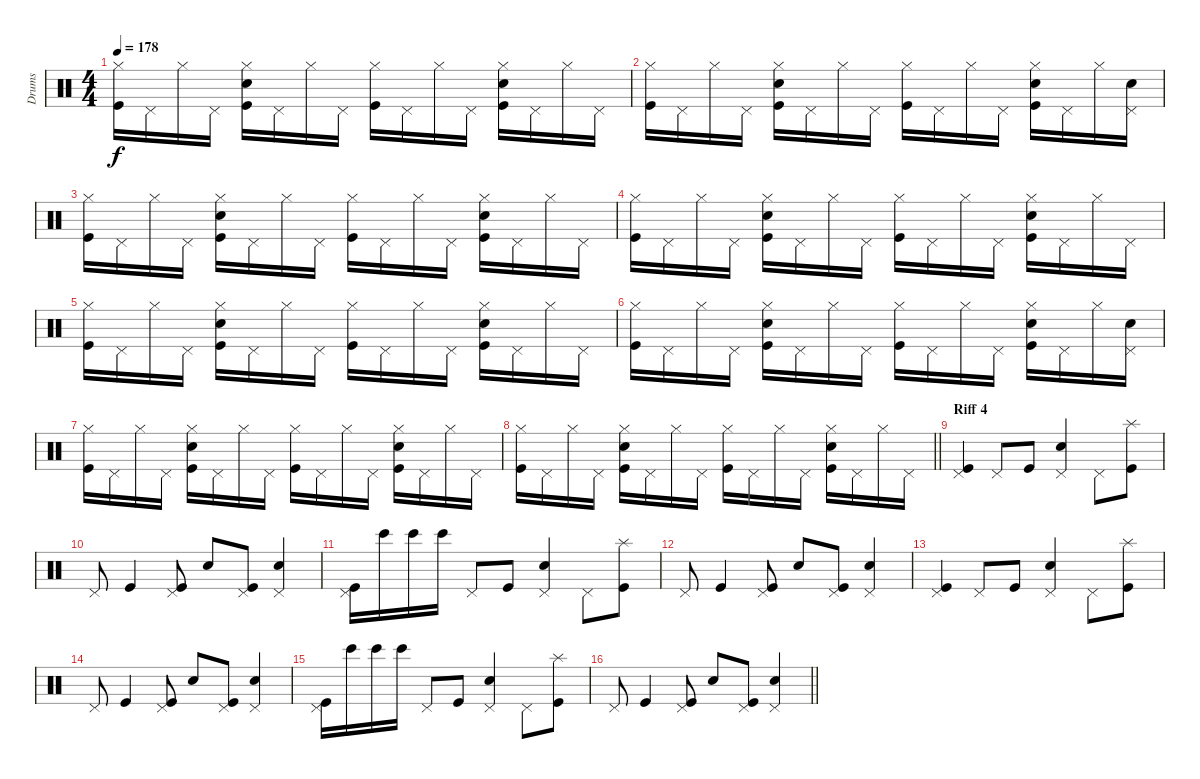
\track ("Drums" "Drums") {instrument percussion}
\staff {score}
\articulation defaults
\ts (4 4)
\tempo 178
\clef neutral
\ks c
("Kick (hit)" "Hi-Hat (closed)").16{dy f} "Pedal Hi-Hat (hit)".16 "Hi-Hat (closed)".16 "Pedal Hi-Hat (hit)".16 ("Kick (hit)" "Electric Snare (hit)" "Hi-Hat (closed)").16 "Pedal Hi-Hat (hit)".16 "Hi-Hat (closed)".16 "Pedal Hi-Hat (hit)".16 ("Kick (hit)" "Hi-Hat (closed)").16 "Pedal Hi-Hat (hit)".16 "Hi-Hat (closed)".16 "Pedal Hi-Hat (hit)".16 ("Kick (hit)" "Electric Snare (hit)" "Hi-Hat (closed)").16 "Pedal Hi-Hat (hit)".16 "Hi-Hat (closed)".16 "Pedal Hi-Hat (hit)".16 |
("Kick (hit)" "Hi-Hat (closed)").16 "Pedal Hi-Hat (hit)".16 "Hi-Hat (closed)".16 "Pedal Hi-Hat (hit)".16 ("Kick (hit)" "Electric Snare (hit)" "Hi-Hat (closed)").16 "Pedal Hi-Hat (hit)".16 "Hi-Hat (closed)".16 "Pedal Hi-Hat (hit)".16 ("Kick (hit)" "Hi-Hat (closed)").16 "Pedal Hi-Hat (hit)".16 "Hi-Hat (closed)".16 "Pedal Hi-Hat (hit)".16 ("Kick (hit)" "Electric Snare (hit)" "Hi-Hat (closed)").16 "Pedal Hi-Hat (hit)".16 "Hi-Hat (closed)".16 ("Electric Snare (hit)" "Pedal Hi-Hat (hit)").16 |
("Kick (hit)" "Hi-Hat (closed)").16 "Pedal Hi-Hat (hit)".16 "Hi-Hat (closed)".16 "Pedal Hi-Hat (hit)".16 ("Kick (hit)" "Electric Snare (hit)" "Hi-Hat (closed)").16 "Pedal Hi-Hat (hit)".16 "Hi-Hat (closed)".16 "Pedal Hi-Hat (hit)".16 ("Kick (hit)" "Hi-Hat (closed)").16 "Pedal Hi-Hat (hit)".16 "Hi-Hat (closed)".16 "Pedal Hi-Hat (hit)".16 ("Kick (hit)" "Electric Snare (hit)" "Hi-Hat (closed)").16 "Pedal Hi-Hat (hit)".16 "Hi-Hat (closed)".16 "Pedal Hi-Hat (hit)".16 |
("Kick (hit)" "Hi-Hat (closed)").16 "Pedal Hi-Hat (hit)".16 "Hi-Hat (closed)".16 "Pedal Hi-Hat (hit)".16 ("Kick (hit)" "Electric Snare (hit)" "Hi-Hat (closed)").16 "Pedal Hi-Hat (hit)".16 "Hi-Hat (closed)".16 "Pedal Hi-Hat (hit)".16 ("Kick (hit)" "Hi-Hat (closed)").16 "Pedal Hi-Hat (hit)".16 "Hi-Hat (closed)".16 "Pedal Hi-Hat (hit)".16 ("Kick (hit)" "Electric Snare (hit)" "Hi-Hat (closed)").16 "Pedal Hi-Hat (hit)".16 "Hi-Hat (closed)".16 "Pedal Hi-Hat (hit)".16 |
("Kick (hit)" "Hi-Hat (closed)").16 "Pedal Hi-Hat (hit)".16 "Hi-Hat (closed)".16 "Pedal Hi-Hat (hit)".16 ("Kick (hit)" "Electric Snare (hit)" "Hi-Hat (closed)").16 "Pedal Hi-Hat (hit)".16 "Hi-Hat (closed)".16 "Pedal Hi-Hat (hit)".16 ("Kick (hit)" "Hi-Hat (closed)").16 "Pedal Hi-Hat (hit)".16 "Hi-Hat (closed)".16 "Pedal Hi-Hat (hit)".16 ("Kick (hit)" "Electric Snare (hit)" "Hi-Hat (closed)").16 "Pedal Hi-Hat (hit)".16 "Hi-Hat (closed)".16 "Pedal Hi-Hat (hit)".16 |
("Kick (hit)" "Hi-Hat (closed)").16 "Pedal Hi-Hat (hit)".16 "Hi-Hat (closed)".16 "Pedal Hi-Hat (hit)".16 ("Kick (hit)" "Electric Snare (hit)" "Hi-Hat (closed)").16 "Pedal Hi-Hat (hit)".16 "Hi-Hat (closed)".16 "Pedal Hi-Hat (hit)".16 ("Kick (hit)" "Hi-Hat (closed)").16 "Pedal Hi-Hat (hit)".16 "Hi-Hat (closed)".16 "Pedal Hi-Hat (hit)".16 ("Kick (hit)" "Electric Snare (hit)" "Hi-Hat (closed)").16 "Pedal Hi-Hat (hit)".16 "Hi-Hat (closed)".16 ("Electric Snare (hit)" "Pedal Hi-Hat (hit)").16 |
("Kick (hit)" "Hi-Hat (closed)").16 "Pedal Hi-Hat (hit)".16 "Hi-Hat (closed)".16 "Pedal Hi-Hat (hit)".16 ("Kick (hit)" "Electric Snare (hit)" "Hi-Hat (closed)").16 "Pedal Hi-Hat (hit)".16 "Hi-Hat (closed)".16 "Pedal Hi-Hat (hit)".16 ("Kick (hit)" "Hi-Hat (closed)").16 "Pedal Hi-Hat (hit)".16 "Hi-Hat (closed)".16 "Pedal Hi-Hat (hit)".16 ("Kick (hit)" "Electric Snare (hit)" "Hi-Hat (closed)").16 "Pedal Hi-Hat (hit)".16 "Hi-Hat (closed)".16 "Pedal Hi-Hat (hit)".16 |
\barLineRight lightlight
("Kick (hit)" "Hi-Hat (closed)").16 "Pedal Hi-Hat (hit)".16 "Hi-Hat (closed)".16 "Pedal Hi-Hat (hit)".16 ("Kick (hit)" "Electric Snare (hit)" "Hi-Hat (closed)").16 "Pedal Hi-Hat (hit)".16 "Hi-Hat (closed)".16 "Pedal Hi-Hat (hit)".16 ("Kick (hit)" "Hi-Hat (closed)").16 "Pedal Hi-Hat (hit)".16 "Hi-Hat (closed)".16 "Pedal Hi-Hat (hit)".16 ("Kick (hit)" "Electric Snare (hit)" "Hi-Hat (closed)").16 "Pedal Hi-Hat (hit)".16 "Hi-Hat (closed)".16 "Pedal Hi-Hat (hit)".16 |
\section ("" "Riff 4")
("Kick (hit)" "Pedal Hi-Hat (hit)").4 "Pedal Hi-Hat (hit)".8 "Kick (hit)".8 ("Electric Snare (hit)" "Pedal Hi-Hat (hit)").4 "Pedal Hi-Hat (hit)".8 ("Kick (hit)" "Splash (hit)").8 |
"Pedal Hi-Hat (hit)".8 "Kick (hit)".4 ("Kick (hit)" "Pedal Hi-Hat (hit)").8 "Electric Snare (hit)".8 ("Kick (hit)" "Pedal Hi-Hat (hit)").8 ("Electric Snare (hit)" "Pedal Hi-Hat (hit)").4 |
("Kick (hit)" "Pedal Hi-Hat (hit)").16 "Bongo High (hit)".16 "Bongo High (hit)".16 "Bongo High (hit)".16 "Pedal Hi-Hat (hit)".8 "Kick (hit)".8 ("Electric Snare (hit)" "Pedal Hi-Hat (hit)").4 "Pedal Hi-Hat (hit)".8 ("Kick (hit)" "Splash (hit)").8 |
"Pedal Hi-Hat (hit)".8 "Kick (hit)".4 ("Kick (hit)" "Pedal Hi-Hat (hit)").8 "Electric Snare (hit)".8 ("Kick (hit)" "Pedal Hi-Hat (hit)").8 ("Electric Snare (hit)" "Pedal Hi-Hat (hit)").4 |
("Kick (hit)" "Pedal Hi-Hat (hit)").4 "Pedal Hi-Hat (hit)".8 "Kick (hit)".8 ("Electric Snare (hit)" "Pedal Hi-Hat (hit)").4 "Pedal Hi-Hat (hit)".8 ("Kick (hit)" "Splash (hit)").8 |
"Pedal Hi-Hat (hit)".8 "Kick (hit)".4 ("Kick (hit)" "Pedal Hi-Hat (hit)").8 "Electric Snare (hit)".8 ("Kick (hit)" "Pedal Hi-Hat (hit)").8 ("Electric Snare (hit)" "Pedal Hi-Hat (hit)").4 |
("Kick (hit)" "Pedal Hi-Hat (hit)").16 "Bongo High (hit)".16 "Bongo High (hit)".16 "Bongo High (hit)".16 "Pedal Hi-Hat (hit)".8 "Kick (hit)".8 ("Electric Snare (hit)" "Pedal Hi-Hat (hit)").4 "Pedal Hi-Hat (hit)".8 ("Kick (hit)" "Splash (hit)").8 |
\barLineRight lightlight "Pedal Hi-Hat (hit)".8 "Kick (hit)".4
("Kick (hit)" "Pedal Hi-Hat (hit)").8 "Electric Snare (hit)".8 ("Kick (hit)" "Pedal Hi-Hat (hit)").8 ("Electric Snare (hit)" "Pedal Hi-Hat (hit)").4
